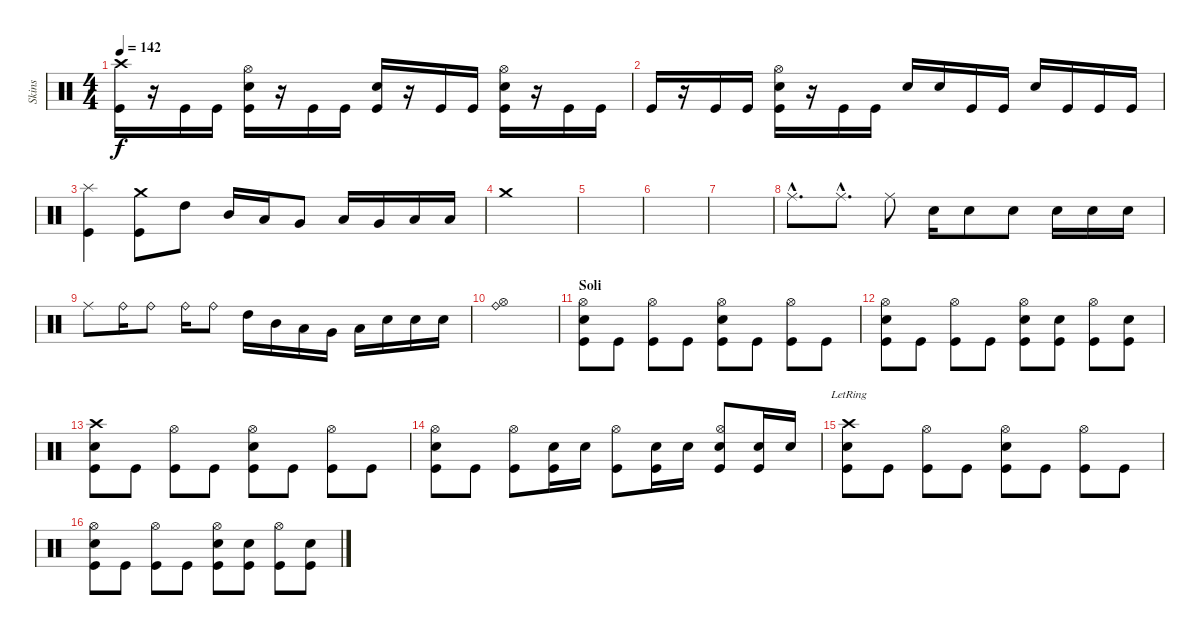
\track ("Skins" "Skins") {instrument percussion}
\staff {score}
\articulation defaults
\ts (4 4)
\tempo 142
\clef neutral
\ks c
("Crash high (hit)" "Kick (hit)").16{dy f} r.16 "Kick (hit)".16 "Kick (hit)".16 ("Electric Snare (hit)" "Hi-Hat (open)" "Kick (hit)").16 r.16 "Kick (hit)".16 "Kick (hit)".16 ("Snare (hit) 2" "Kick (hit)").16 r.16 "Kick (hit)".16 "Kick (hit)".16 ("Electric Snare (hit)" "Hi-Hat (open)" "Kick (hit)").16 r.16 "Kick (hit)".16 "Kick (hit)".16 |
"Kick (hit)".16 r.16 "Kick (hit)".16 "Kick (hit)".16 ("Electric Snare (hit)" "Hi-Hat (open)" "Kick (hit)").16 r.16 "Kick (hit)".16 "Kick (hit)".16 "Snare (hit) 2".16 "Snare (hit) 2".16 "Kick (hit)".16 "Kick (hit)".16 "Snare (hit) 2".16 "Kick (hit)".16 "Kick (hit)".16 "Kick (hit)".16 |
("Splash (hit)" "Kick (hit)").4 ("Crash medium (hit)" "Kick (hit)").8 "High Tom (hit)".8 "Mid Tom (hit)".16 "Low Tom (hit)".16 "Very Low Tom (hit)".8 "Low Tom (hit)".16 "Very Low Tom (hit)".16 "Low Floor Tom (hit)".16 "Low Floor Tom (hit)".16 |
"Crash medium (hit)".1 |
|
|
|
"Ride (middle)"{hac}.8{d} "Ride (middle)"{hac}.8{d} "Ride (middle)".8 "Snare (hit) 2".16 "Snare (hit) 2".8 "Snare (hit) 2".8 "Snare (hit) 2".16 "Snare (hit) 2".16 "Snare (hit) 2".16 |
"Ride (middle)".8 "Ride (bell)".16 "Ride (bell)".8 "Ride (bell)".16 "Ride (bell)".8 "High Tom (hit)".16 "Mid Tom (hit)".16 "Low Tom (hit)".16 "Very Low Tom (hit)".16 "Low Floor Tom (hit)".16 "Snare (hit) 2".16 "Snare (hit) 2".16 "Snare (hit) 2".16 |
("Ride (bell)" "Hi-Hat (open)").1 |
\section ("" "Soli")
("Hi-Hat (open)" "Electric Snare (hit)" "Kick (hit)").8 "Kick (hit)".8 ("Hi-Hat (open)" "Kick (hit)").8 "Kick (hit)".8 ("Hi-Hat (open)" "Electric Snare (hit)" "Kick (hit)").8 "Kick (hit)".8 ("Hi-Hat (open)" "Kick (hit)").8 "Kick (hit)".8 |
("Hi-Hat (open)" "Electric Snare (hit)" "Kick (hit)").8 "Kick (hit)".8 ("Hi-Hat (open)" "Kick (hit)").8 "Kick (hit)".8 ("Hi-Hat (open)" "Electric Snare (hit)" "Kick (hit)").8 ("Electric Snare (hit)" "Kick (hit)").8 ("Hi-Hat (open)" "Kick (hit)").8 ("Electric Snare (hit)" "Kick (hit)").8 |
("Crash high (hit)" "Electric Snare (hit)" "Kick (hit)").8 "Kick (hit)".8 ("Hi-Hat (open)" "Kick (hit)").8 "Kick (hit)".8 ("Hi-Hat (open)" "Electric Snare (hit)" "Kick (hit)").8 "Kick (hit)".8 ("Hi-Hat (open)" "Kick (hit)").8 "Kick (hit)".8 |
("Hi-Hat (open)" "Electric Snare (hit)" "Kick (hit)").8 "Kick (hit)".8 ("Hi-Hat (open)" "Kick (hit)").8 ("Snare (hit) 2" "Kick (hit)").16 "Snare (hit) 2".16 ("Hi-Hat (open)" "Kick (hit)").8 ("Snare (hit) 2" "Kick (hit)").16 "Snare (hit) 2".16 ("Hi-Hat (open)" "Snare (hit) 2" "Kick (hit)").8 ("Snare (hit) 2" "Kick (hit)").16 "Snare (hit) 2".16 |
("Electric Snare (hit)" "Crash high (hit)"{lr} "Kick (hit)").8 "Kick (hit)".8 ("Hi-Hat (open)" "Kick (hit)").8 "Kick (hit)".8 ("Hi-Hat (open)" "Electric Snare (hit)" "Kick (hit)").8 "Kick (hit)".8 ("Hi-Hat (open)" "Kick (hit)").8 "Kick (hit)".8 |
("Hi-Hat (open)" "Electric Snare (hit)" "Kick (hit)").8 "Kick (hit)".8 ("Hi-Hat (open)" "Kick (hit)").8 "Kick (hit)".8 ("Hi-Hat (open)" "Electric Snare (hit)" "Kick (hit)").8 ("Electric Snare (hit)" "Kick (hit)").8 ("Hi-Hat (open)" "Kick (hit)").8 ("Electric Snare (hit)" "Kick (hit)").8
